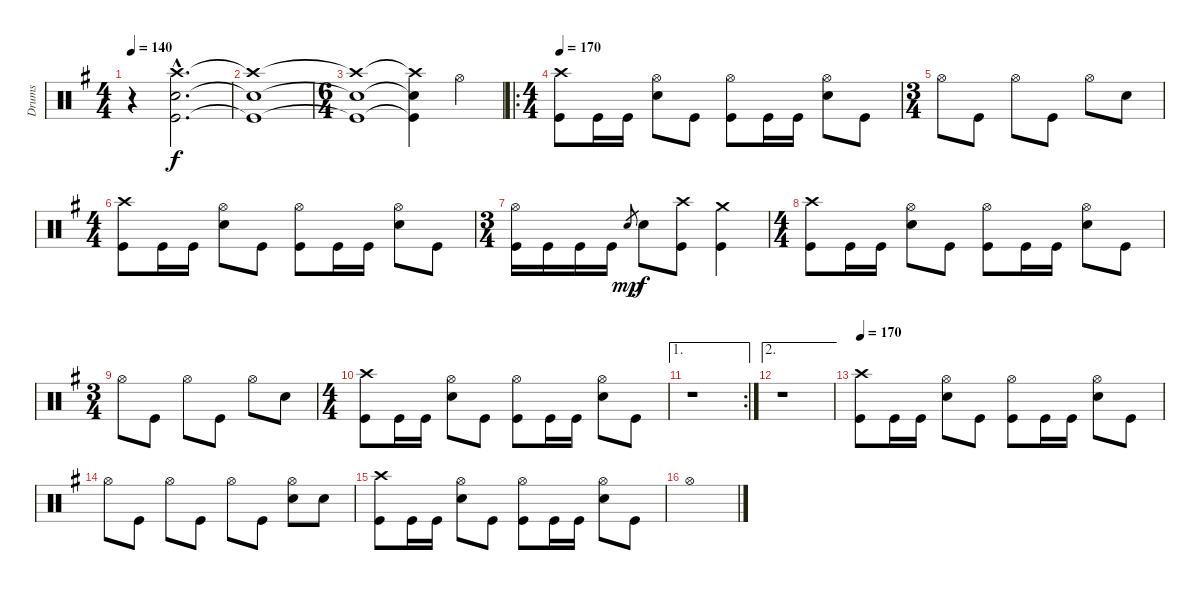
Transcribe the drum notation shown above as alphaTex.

\track ("Drums" "Drums") {instrument percussion}
\staff {score}
\articulation defaults
\ts (4 4)
\tempo 140
\clef neutral
\ks g
r.4{dy ppp} ("Crash high (hit)"{hac} "Snare (hit) 2"{hac} "Kick (hit)"{hac}).2{d dy f} |
("Crash high (hit)"{t} "Snare (hit) 2"{t} "Kick (hit)"{t}).1 |
\ts (6 4)
("Crash high (hit)"{t} "Snare (hit) 2"{t} "Kick (hit)"{t}).1 ("Crash high (hit)"{t} "Snare (hit) 2"{t} "Kick (hit)"{t}).4 "Hi-Hat (open)".4 |
\ro
\ts (4 4)
\tempo 170
("Crash high (hit)" "Kick (hit)").8 "Kick (hit)".16 "Kick (hit)".16 ("Hi-Hat (open)" "Electric Snare (hit)").8 "Kick (hit)".8 ("Hi-Hat (open)" "Kick (hit)").8 "Kick (hit)".16 "Kick (hit)".16 ("Hi-Hat (open)" "Electric Snare (hit)").8 "Kick (hit)".8 |
\ts (3 4)
"Hi-Hat (open)".8 "Kick (hit)".8 "Hi-Hat (open)".8 "Kick (hit)".8 "Hi-Hat (open)".8 "Electric Snare (hit)".8 |
\ts (4 4)
("Crash high (hit)" "Kick (hit)").8 "Kick (hit)".16 "Kick (hit)".16 ("Hi-Hat (open)" "Electric Snare (hit)").8 "Kick (hit)".8 ("Hi-Hat (open)" "Kick (hit)").8 "Kick (hit)".16 "Kick (hit)".16 ("Hi-Hat (open)" "Electric Snare (hit)").8 "Kick (hit)".8 |
\ts (3 4)
("Hi-Hat (open)" "Kick (hit)").16 "Kick (hit)".16 "Kick (hit)".16 "Kick (hit)".16 "Electric Snare (hit)".8{gr dy mp} "Electric Snare (hit)".8{dy f} ("Crash high (hit)" "Kick (hit)").8 ("Crash medium (hit)" "Kick (hit)").4 |
\ts (4 4)
("Crash high (hit)" "Kick (hit)").8 "Kick (hit)".16 "Kick (hit)".16 ("Hi-Hat (open)" "Electric Snare (hit)").8 "Kick (hit)".8 ("Hi-Hat (open)" "Kick (hit)").8 "Kick (hit)".16 "Kick (hit)".16 ("Hi-Hat (open)" "Electric Snare (hit)").8 "Kick (hit)".8 |
\ts (3 4)
"Hi-Hat (open)".8 "Kick (hit)".8 "Hi-Hat (open)".8 "Kick (hit)".8 "Hi-Hat (open)".8 "Electric Snare (hit)".8 |
\ts (4 4)
("Crash high (hit)" "Kick (hit)").8 "Kick (hit)".16 "Kick (hit)".16 ("Hi-Hat (open)" "Electric Snare (hit)").8 "Kick (hit)".8 ("Hi-Hat (open)" "Kick (hit)").8 "Kick (hit)".16 "Kick (hit)".16 ("Hi-Hat (open)" "Electric Snare (hit)").8 "Kick (hit)".8 |
\ae 1
\rc 2
r.1 |
\ae 2
r.1 |
\tempo 170
("Crash high (hit)" "Kick (hit)").8 "Kick (hit)".16 "Kick (hit)".16 ("Hi-Hat (open)" "Electric Snare (hit)").8 "Kick (hit)".8 ("Hi-Hat (open)" "Kick (hit)").8 "Kick (hit)".16 "Kick (hit)".16 ("Hi-Hat (open)" "Electric Snare (hit)").8 "Kick (hit)".8 |
"Hi-Hat (open)".8 "Kick (hit)".8 "Hi-Hat (open)".8 "Kick (hit)".8 "Hi-Hat (open)".8 "Kick (hit)".8 ("Hi-Hat (open)" "Electric Snare (hit)").8 "Electric Snare (hit)".8 |
("Crash high (hit)" "Kick (hit)").8 "Kick (hit)".16 "Kick (hit)".16 ("Hi-Hat (open)" "Electric Snare (hit)").8 "Kick (hit)".8 ("Hi-Hat (open)" "Kick (hit)").8 "Kick (hit)".16 "Kick (hit)".16 ("Hi-Hat (open)" "Electric Snare (hit)").8 "Kick (hit)".8 |
"Hi-Hat (open)".1
